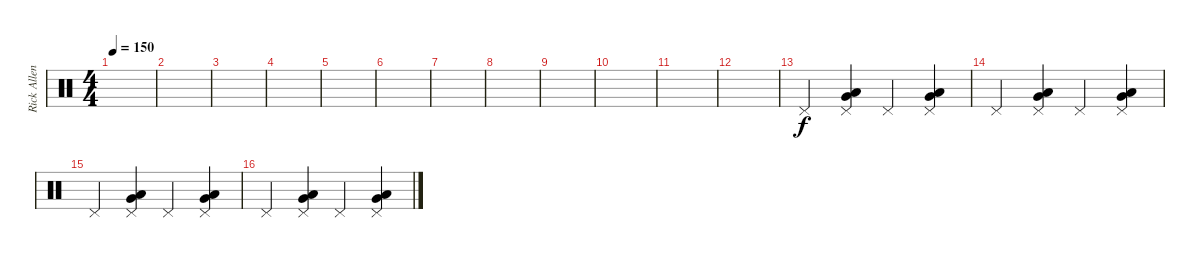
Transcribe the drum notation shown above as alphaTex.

\track ("Rick Allen" "Rick Allen") {instrument percussion}
\staff {score}
\articulation defaults
\ts (4 4)
\tempo 150
\clef neutral
\ks c
|
|
|
|
|
|
|
|
|
|
|
|
"Pedal Hi-Hat (hit)".4 ("Very Low Tom (hit)" "Low Tom (hit)" "Pedal Hi-Hat (hit)").4 "Pedal Hi-Hat (hit)".4 ("Very Low Tom (hit)" "Low Tom (hit)" "Pedal Hi-Hat (hit)").4 |
"Pedal Hi-Hat (hit)".4 ("Very Low Tom (hit)" "Low Tom (hit)" "Pedal Hi-Hat (hit)").4 "Pedal Hi-Hat (hit)".4 ("Very Low Tom (hit)" "Low Tom (hit)" "Pedal Hi-Hat (hit)").4 |
"Pedal Hi-Hat (hit)".4 ("Very Low Tom (hit)" "Low Tom (hit)" "Pedal Hi-Hat (hit)").4 "Pedal Hi-Hat (hit)".4 ("Very Low Tom (hit)" "Low Tom (hit)" "Pedal Hi-Hat (hit)").4 |
"Pedal Hi-Hat (hit)".4 ("Very Low Tom (hit)" "Low Tom (hit)" "Pedal Hi-Hat (hit)").4 "Pedal Hi-Hat (hit)".4 ("Very Low Tom (hit)" "Low Tom (hit)" "Pedal Hi-Hat (hit)").4
